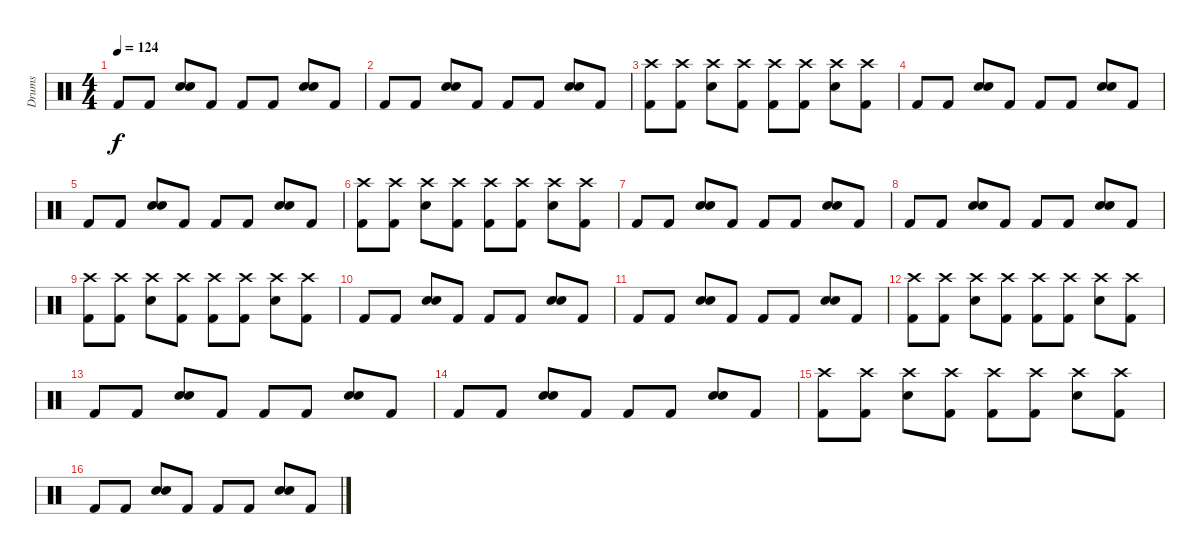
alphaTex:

\track ("Drums" "Drums") {instrument percussion}
\staff {score}
\articulation defaults
\ts (4 4)
\tempo 124
\clef neutral
\ks c "Kick (hit) 2".8{dy f} "Kick (hit) 2".8
("Snare (hit) 2" "Snare (hit) 2").8 "Kick (hit) 2".8 "Kick (hit) 2".8 "Kick (hit) 2".8 ("Snare (hit) 2" "Snare (hit) 2").8 "Kick (hit) 2".8 |
"Kick (hit) 2".8 "Kick (hit) 2".8 ("Snare (hit) 2" "Snare (hit) 2").8 "Kick (hit) 2".8 "Kick (hit) 2".8 "Kick (hit) 2".8 ("Snare (hit) 2" "Snare (hit) 2").8 "Kick (hit) 2".8 |
("Crash high (hit)" "Kick (hit) 2").8 ("Crash high (hit)" "Kick (hit) 2").8 ("Crash high (hit)" "Snare (hit) 2").8 ("Crash high (hit)" "Kick (hit) 2").8 ("Crash high (hit)" "Kick (hit) 2").8 ("Crash high (hit)" "Kick (hit) 2").8 ("Crash high (hit)" "Snare (hit) 2").8 ("Crash high (hit)" "Kick (hit) 2").8 |
"Kick (hit) 2".8 "Kick (hit) 2".8 ("Snare (hit) 2" "Snare (hit) 2").8 "Kick (hit) 2".8 "Kick (hit) 2".8 "Kick (hit) 2".8 ("Snare (hit) 2" "Snare (hit) 2").8 "Kick (hit) 2".8 |
"Kick (hit) 2".8 "Kick (hit) 2".8 ("Snare (hit) 2" "Snare (hit) 2").8 "Kick (hit) 2".8 "Kick (hit) 2".8 "Kick (hit) 2".8 ("Snare (hit) 2" "Snare (hit) 2").8 "Kick (hit) 2".8 |
("Crash high (hit)" "Kick (hit) 2").8 ("Crash high (hit)" "Kick (hit) 2").8 ("Crash high (hit)" "Snare (hit) 2").8 ("Crash high (hit)" "Kick (hit) 2").8 ("Crash high (hit)" "Kick (hit) 2").8 ("Crash high (hit)" "Kick (hit) 2").8 ("Crash high (hit)" "Snare (hit) 2").8 ("Crash high (hit)" "Kick (hit) 2").8 |
"Kick (hit) 2".8 "Kick (hit) 2".8 ("Snare (hit) 2" "Snare (hit) 2").8 "Kick (hit) 2".8 "Kick (hit) 2".8 "Kick (hit) 2".8 ("Snare (hit) 2" "Snare (hit) 2").8 "Kick (hit) 2".8 |
"Kick (hit) 2".8 "Kick (hit) 2".8 ("Snare (hit) 2" "Snare (hit) 2").8 "Kick (hit) 2".8 "Kick (hit) 2".8 "Kick (hit) 2".8 ("Snare (hit) 2" "Snare (hit) 2").8 "Kick (hit) 2".8 |
("Crash high (hit)" "Kick (hit) 2").8 ("Crash high (hit)" "Kick (hit) 2").8 ("Crash high (hit)" "Snare (hit) 2").8 ("Crash high (hit)" "Kick (hit) 2").8 ("Crash high (hit)" "Kick (hit) 2").8 ("Crash high (hit)" "Kick (hit) 2").8 ("Crash high (hit)" "Snare (hit) 2").8 ("Crash high (hit)" "Kick (hit) 2").8 |
"Kick (hit) 2".8 "Kick (hit) 2".8 ("Snare (hit) 2" "Snare (hit) 2").8 "Kick (hit) 2".8 "Kick (hit) 2".8 "Kick (hit) 2".8 ("Snare (hit) 2" "Snare (hit) 2").8 "Kick (hit) 2".8 |
"Kick (hit) 2".8 "Kick (hit) 2".8 ("Snare (hit) 2" "Snare (hit) 2").8 "Kick (hit) 2".8 "Kick (hit) 2".8 "Kick (hit) 2".8 ("Snare (hit) 2" "Snare (hit) 2").8 "Kick (hit) 2".8 |
("Crash high (hit)" "Kick (hit) 2").8 ("Crash high (hit)" "Kick (hit) 2").8 ("Crash high (hit)" "Snare (hit) 2").8 ("Crash high (hit)" "Kick (hit) 2").8 ("Crash high (hit)" "Kick (hit) 2").8 ("Crash high (hit)" "Kick (hit) 2").8 ("Crash high (hit)" "Snare (hit) 2").8 ("Crash high (hit)" "Kick (hit) 2").8 |
"Kick (hit) 2".8 "Kick (hit) 2".8 ("Snare (hit) 2" "Snare (hit) 2").8 "Kick (hit) 2".8 "Kick (hit) 2".8 "Kick (hit) 2".8 ("Snare (hit) 2" "Snare (hit) 2").8 "Kick (hit) 2".8 |
"Kick (hit) 2".8 "Kick (hit) 2".8 ("Snare (hit) 2" "Snare (hit) 2").8 "Kick (hit) 2".8 "Kick (hit) 2".8 "Kick (hit) 2".8 ("Snare (hit) 2" "Snare (hit) 2").8 "Kick (hit) 2".8 |
("Crash high (hit)" "Kick (hit) 2").8 ("Crash high (hit)" "Kick (hit) 2").8 ("Crash high (hit)" "Snare (hit) 2").8 ("Crash high (hit)" "Kick (hit) 2").8 ("Crash high (hit)" "Kick (hit) 2").8 ("Crash high (hit)" "Kick (hit) 2").8 ("Crash high (hit)" "Snare (hit) 2").8 ("Crash high (hit)" "Kick (hit) 2").8 |
"Kick (hit) 2".8 "Kick (hit) 2".8 ("Snare (hit) 2" "Snare (hit) 2").8 "Kick (hit) 2".8 "Kick (hit) 2".8 "Kick (hit) 2".8 ("Snare (hit) 2" "Snare (hit) 2").8 "Kick (hit) 2".8
